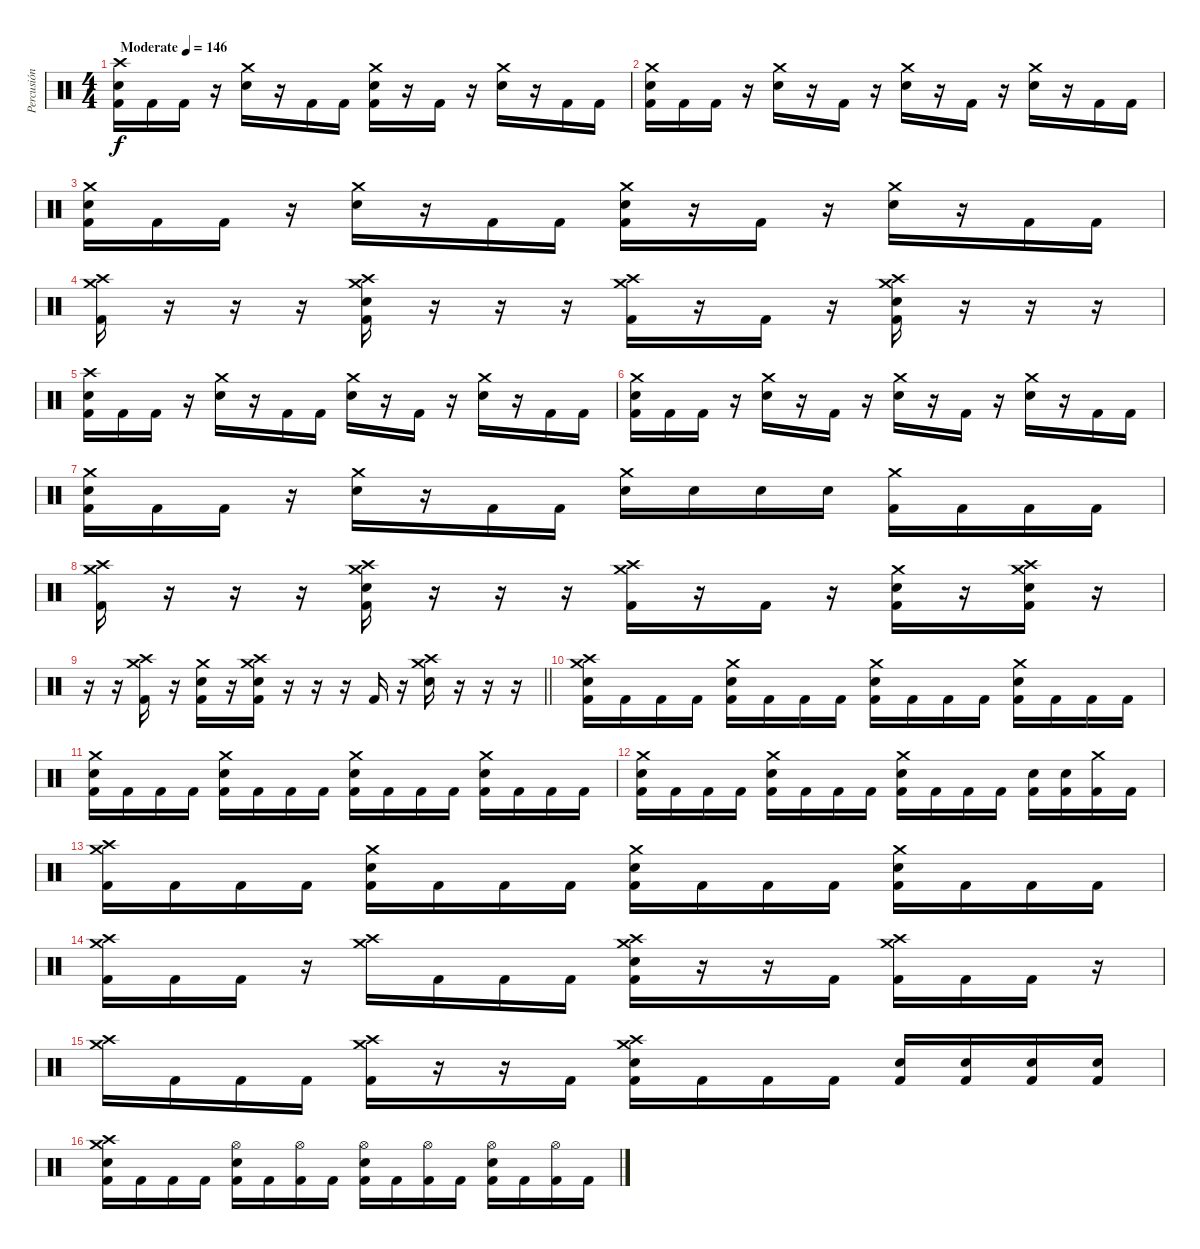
\track ("Percusión" "Percusión") {instrument percussion}
\staff {score}
\articulation defaults
\ts (4 4)
\tempo (146 "Moderate")
\clef neutral
\ks c
("Crash high (hit)" "Electric Snare (hit)" "Kick (hit) 2").16{dy f} "Kick (hit) 2".16 "Kick (hit) 2".16 r.16 ("Crash medium (hit)" "Electric Snare (hit)").16 r.16 "Kick (hit) 2".16 "Kick (hit) 2".16 ("Crash medium (hit)" "Electric Snare (hit)" "Kick (hit) 2").16 r.16 "Kick (hit) 2".16 r.16 ("Crash medium (hit)" "Electric Snare (hit)").16 r.16 "Kick (hit) 2".16 "Kick (hit) 2".16 |
("Crash medium (hit)" "Electric Snare (hit)" "Kick (hit) 2").16 "Kick (hit) 2".16 "Kick (hit) 2".16 r.16 ("Crash medium (hit)" "Electric Snare (hit)").16 r.16 "Kick (hit) 2".16 r.16 ("Crash medium (hit)" "Electric Snare (hit)").16 r.16 "Kick (hit) 2".16 r.16 ("Crash medium (hit)" "Electric Snare (hit)").16 r.16 "Kick (hit) 2".16 "Kick (hit) 2".16 |
("Crash medium (hit)" "Electric Snare (hit)" "Kick (hit) 2").16 "Kick (hit) 2".16 "Kick (hit) 2".16 r.16 ("Crash medium (hit)" "Electric Snare (hit)").16 r.16 "Kick (hit) 2".16 "Kick (hit) 2".16 ("Crash medium (hit)" "Electric Snare (hit)" "Kick (hit) 2").16 r.16 "Kick (hit) 2".16 r.16 ("Crash medium (hit)" "Electric Snare (hit)").16 r.16 "Kick (hit) 2".16 "Kick (hit) 2".16 |
("Crash high (hit)" "Crash medium (hit)" "Kick (hit) 2").16 r.16 r.16 r.16 ("Crash high (hit)" "Crash medium (hit)" "Electric Snare (hit)" "Kick (hit) 2").16 r.16 r.16 r.16 ("Crash high (hit)" "Crash medium (hit)" "Kick (hit) 2").16 r.16 "Kick (hit) 2".16 r.16 ("Crash high (hit)" "Crash medium (hit)" "Electric Snare (hit)" "Kick (hit) 2").16 r.16 r.16 r.16 |
("Crash high (hit)" "Electric Snare (hit)" "Kick (hit) 2").16 "Kick (hit) 2".16 "Kick (hit) 2".16 r.16 ("Crash medium (hit)" "Electric Snare (hit)").16 r.16 "Kick (hit) 2".16 "Kick (hit) 2".16 ("Crash medium (hit)" "Electric Snare (hit)").16 r.16 "Kick (hit) 2".16 r.16 ("Crash medium (hit)" "Electric Snare (hit)").16 r.16 "Kick (hit) 2".16 "Kick (hit) 2".16 |
("Crash medium (hit)" "Electric Snare (hit)" "Kick (hit) 2").16 "Kick (hit) 2".16 "Kick (hit) 2".16 r.16 ("Crash medium (hit)" "Electric Snare (hit)").16 r.16 "Kick (hit) 2".16 r.16 ("Crash medium (hit)" "Electric Snare (hit)").16 r.16 "Kick (hit) 2".16 r.16 ("Crash medium (hit)" "Electric Snare (hit)").16 r.16 "Kick (hit) 2".16 "Kick (hit) 2".16 |
("Crash medium (hit)" "Electric Snare (hit)" "Kick (hit) 2").16 "Kick (hit) 2".16 "Kick (hit) 2".16 r.16 ("Crash medium (hit)" "Electric Snare (hit)").16 r.16 "Kick (hit) 2".16 "Kick (hit) 2".16 ("Crash medium (hit)" "Electric Snare (hit)").16 "Electric Snare (hit)".16 "Electric Snare (hit)".16 "Electric Snare (hit)".16 ("Crash medium (hit)" "Kick (hit) 2").16 "Kick (hit) 2".16 "Kick (hit) 2".16 "Kick (hit) 2".16 |
("Crash high (hit)" "Crash medium (hit)" "Kick (hit) 2").16 r.16 r.16 r.16 ("Crash high (hit)" "Crash medium (hit)" "Electric Snare (hit)" "Kick (hit) 2").16 r.16 r.16 r.16 ("Crash high (hit)" "Crash medium (hit)" "Kick (hit) 2").16 r.16 "Kick (hit) 2".16 r.16 ("Crash medium (hit)" "Electric Snare (hit)" "Kick (hit) 2").16 r.16 ("Crash high (hit)" "Crash medium (hit)" "Electric Snare (hit)" "Kick (hit) 2").16 r.16 |
\barLineRight lightlight
r.16 r.16 ("Crash medium (hit)" "Crash high (hit)" "Kick (hit) 2").16 r.16 ("Crash medium (hit)" "Electric Snare (hit)" "Kick (hit) 2").16 r.16 ("Crash high (hit)" "Crash medium (hit)" "Electric Snare (hit)" "Kick (hit) 2").16 r.16 r.16 r.16 "Kick (hit) 2".16 r.16 ("Crash high (hit)" "Crash medium (hit)" "Electric Snare (hit)").16 r.16 r.16 r.16 |
("Crash medium (hit)" "Crash high (hit)" "Electric Snare (hit)" "Kick (hit) 2").16 "Kick (hit) 2".16 "Kick (hit) 2".16 "Kick (hit) 2".16 ("Crash medium (hit)" "Electric Snare (hit)" "Kick (hit) 2").16 "Kick (hit) 2".16 "Kick (hit) 2".16 "Kick (hit) 2".16 ("Crash medium (hit)" "Electric Snare (hit)" "Kick (hit) 2").16 "Kick (hit) 2".16 "Kick (hit) 2".16 "Kick (hit) 2".16 ("Crash medium (hit)" "Electric Snare (hit)" "Kick (hit) 2").16 "Kick (hit) 2".16 "Kick (hit) 2".16 "Kick (hit) 2".16 |
("Crash medium (hit)" "Electric Snare (hit)" "Kick (hit) 2").16 "Kick (hit) 2".16 "Kick (hit) 2".16 "Kick (hit) 2".16 ("Crash medium (hit)" "Electric Snare (hit)" "Kick (hit) 2").16 "Kick (hit) 2".16 "Kick (hit) 2".16 "Kick (hit) 2".16 ("Crash medium (hit)" "Electric Snare (hit)" "Kick (hit) 2").16 "Kick (hit) 2".16 "Kick (hit) 2".16 "Kick (hit) 2".16 ("Crash medium (hit)" "Electric Snare (hit)" "Kick (hit) 2").16 "Kick (hit) 2".16 "Kick (hit) 2".16 "Kick (hit) 2".16 |
("Crash medium (hit)" "Electric Snare (hit)" "Kick (hit) 2").16 "Kick (hit) 2".16 "Kick (hit) 2".16 "Kick (hit) 2".16 ("Crash medium (hit)" "Electric Snare (hit)" "Kick (hit) 2").16 "Kick (hit) 2".16 "Kick (hit) 2".16 "Kick (hit) 2".16 ("Crash medium (hit)" "Electric Snare (hit)" "Kick (hit) 2").16 "Kick (hit) 2".16 "Kick (hit) 2".16 "Kick (hit) 2".16 ("Electric Snare (hit)" "Kick (hit) 2").16 ("Electric Snare (hit)" "Kick (hit) 2").16 ("Crash medium (hit)" "Kick (hit) 2").16 "Kick (hit) 2".16 |
("Crash medium (hit)" "Crash high (hit)" "Kick (hit) 2").16 "Kick (hit) 2".16 "Kick (hit) 2".16 "Kick (hit) 2".16 ("Crash medium (hit)" "Electric Snare (hit)" "Kick (hit) 2").16 "Kick (hit) 2".16 "Kick (hit) 2".16 "Kick (hit) 2".16 ("Crash medium (hit)" "Electric Snare (hit)" "Kick (hit) 2").16 "Kick (hit) 2".16 "Kick (hit) 2".16 "Kick (hit) 2".16 ("Crash medium (hit)" "Electric Snare (hit)" "Kick (hit) 2").16 "Kick (hit) 2".16 "Kick (hit) 2".16 "Kick (hit) 2".16 |
("Crash medium (hit)" "Crash high (hit)" "Kick (hit) 2").16 "Kick (hit) 2".16 "Kick (hit) 2".16 r.16 ("Crash medium (hit)" "Crash high (hit)").16 "Kick (hit) 2".16 "Kick (hit) 2".16 "Kick (hit) 2".16 ("Crash medium (hit)" "Crash high (hit)" "Electric Snare (hit)" "Kick (hit) 2").16 r.16 r.16 "Kick (hit) 2".16 ("Crash medium (hit)" "Crash high (hit)" "Kick (hit) 2").16 "Kick (hit) 2".16 "Kick (hit) 2".16 r.16 |
("Crash high (hit)" "Crash medium (hit)").16 "Kick (hit) 2".16 "Kick (hit) 2".16 "Kick (hit) 2".16 ("Crash medium (hit)" "Crash high (hit)" "Kick (hit) 2").16 r.16 r.16 "Kick (hit) 2".16 ("Crash medium (hit)" "Crash high (hit)" "Electric Snare (hit)" "Kick (hit) 2").16 "Kick (hit) 2".16 "Kick (hit) 2".16 "Kick (hit) 2".16 ("Electric Snare (hit)" "Kick (hit) 2").16 ("Electric Snare (hit)" "Kick (hit) 2").16 ("Electric Snare (hit)" "Kick (hit) 2").16 ("Electric Snare (hit)" "Kick (hit) 2").16 |
("Crash medium (hit)" "Crash high (hit)" "Electric Snare (hit)" "Kick (hit) 2").16 "Kick (hit) 2".16 "Kick (hit) 2".16 "Kick (hit) 2".16 ("Hi-Hat (open)" "Electric Snare (hit)" "Kick (hit) 2").16 "Kick (hit) 2".16 ("Hi-Hat (open)" "Kick (hit) 2").16 "Kick (hit) 2".16 ("Hi-Hat (open)" "Electric Snare (hit)" "Kick (hit) 2").16 "Kick (hit) 2".16 ("Hi-Hat (open)" "Kick (hit) 2").16 "Kick (hit) 2".16 ("Hi-Hat (open)" "Electric Snare (hit)" "Kick (hit) 2").16 "Kick (hit) 2".16 ("Hi-Hat (open)" "Kick (hit) 2").16 "Kick (hit) 2".16
